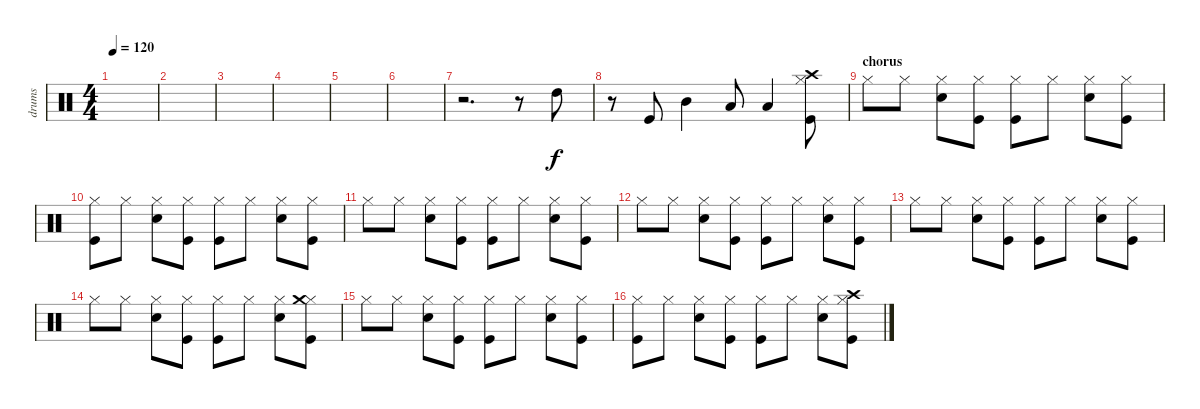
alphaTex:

\track ("drums" "drums") {instrument percussion}
\staff {score}
\articulation defaults
\ts (4 4)
\tempo 120
\clef neutral
\ks c
|
|
|
|
|
|
r.2{d} r.8 "High Tom (hit)".8 |
r.8 "Kick (hit)".8 "Mid Tom (hit)".4 "Low Tom (hit)".8 "Low Floor Tom (hit)".4 ("Kick (hit)" "Hi-Hat (closed)" "Crash high (hit)").8 |
\section ("" "chorus")
"Hi-Hat (closed)".8 "Hi-Hat (closed)".8 ("Electric Snare (hit)" "Hi-Hat (closed)").8 ("Kick (hit)" "Hi-Hat (closed)").8 ("Kick (hit)" "Hi-Hat (closed)").8 "Hi-Hat (closed)".8 ("Electric Snare (hit)" "Hi-Hat (closed)").8 ("Kick (hit)" "Hi-Hat (closed)").8 |
("Kick (hit)" "Hi-Hat (closed)").8 "Hi-Hat (closed)".8 ("Electric Snare (hit)" "Hi-Hat (closed)").8 ("Kick (hit)" "Hi-Hat (closed)").8 ("Kick (hit)" "Hi-Hat (closed)").8 "Hi-Hat (closed)".8 ("Electric Snare (hit)" "Hi-Hat (closed)").8 ("Kick (hit)" "Hi-Hat (closed)").8 |
"Hi-Hat (closed)".8 "Hi-Hat (closed)".8 ("Electric Snare (hit)" "Hi-Hat (closed)").8 ("Kick (hit)" "Hi-Hat (closed)").8 ("Kick (hit)" "Hi-Hat (closed)").8 "Hi-Hat (closed)".8 ("Electric Snare (hit)" "Hi-Hat (closed)").8 ("Kick (hit)" "Hi-Hat (closed)").8 |
"Hi-Hat (closed)".8 "Hi-Hat (closed)".8 ("Electric Snare (hit)" "Hi-Hat (closed)").8 ("Kick (hit)" "Hi-Hat (closed)").8 ("Kick (hit)" "Hi-Hat (closed)").8 "Hi-Hat (closed)".8 ("Electric Snare (hit)" "Hi-Hat (closed)").8 ("Kick (hit)" "Hi-Hat (closed)").8 |
"Hi-Hat (closed)".8 "Hi-Hat (closed)".8 ("Electric Snare (hit)" "Hi-Hat (closed)").8 ("Kick (hit)" "Hi-Hat (closed)").8 ("Kick (hit)" "Hi-Hat (closed)").8 "Hi-Hat (closed)".8 ("Electric Snare (hit)" "Hi-Hat (closed)").8 ("Kick (hit)" "Hi-Hat (closed)").8 |
"Hi-Hat (closed)".8 "Hi-Hat (closed)".8 ("Electric Snare (hit)" "Hi-Hat (closed)").8 ("Kick (hit)" "Hi-Hat (closed)").8 ("Kick (hit)" "Hi-Hat (closed)").8 "Hi-Hat (closed)".8 ("Electric Snare (hit)" "Hi-Hat (closed)").8 ("Kick (hit)" "Hi-Hat (closed)" "Crash medium (hit)").8 |
"Hi-Hat (closed)".8 "Hi-Hat (closed)".8 ("Electric Snare (hit)" "Hi-Hat (closed)").8 ("Kick (hit)" "Hi-Hat (closed)").8 ("Kick (hit)" "Hi-Hat (closed)").8 "Hi-Hat (closed)".8 ("Electric Snare (hit)" "Hi-Hat (closed)").8 ("Kick (hit)" "Hi-Hat (closed)").8 |
("Kick (hit)" "Hi-Hat (closed)").8 "Hi-Hat (closed)".8 ("Electric Snare (hit)" "Hi-Hat (closed)").8 ("Kick (hit)" "Hi-Hat (closed)").8 ("Kick (hit)" "Hi-Hat (closed)").8 "Hi-Hat (closed)".8 ("Electric Snare (hit)" "Hi-Hat (closed)").8 ("Kick (hit)" "Hi-Hat (closed)" "Crash high (hit)").8
